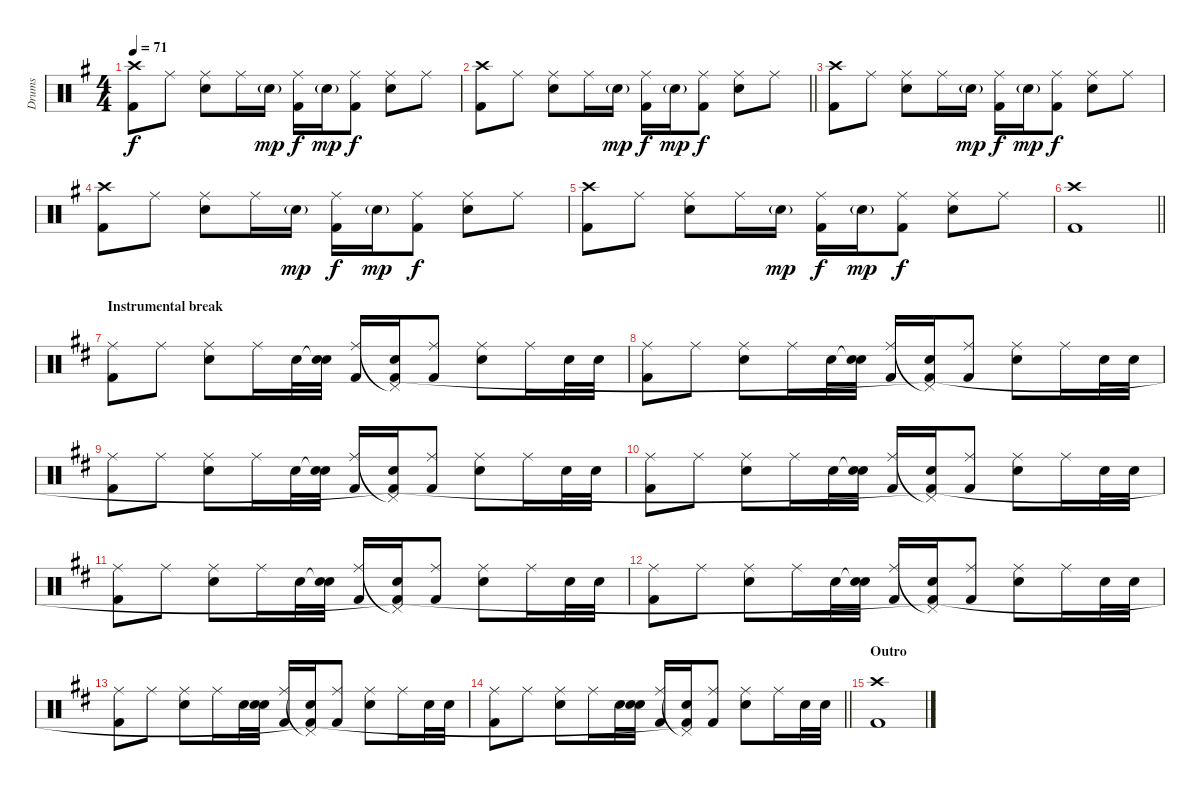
\track ("Drums" "Drums") {instrument percussion}
\staff {score}
\articulation defaults
\ts (4 4)
\tempo 71
\clef neutral
\ks eminor
("Crash high (hit)" "Kick (hit) 2").8{dy f} "Ride (middle)".8 ("Ride (middle)" "Electric Snare (hit)").8 "Ride (middle)".16 "Electric Snare (hit)"{g}.16{dy mp} ("Ride (middle)" "Kick (hit) 2").16{dy f} "Electric Snare (hit)"{g}.16{dy mp} ("Ride (middle)" "Kick (hit) 2").8{dy f} ("Ride (middle)" "Electric Snare (hit)").8 "Ride (middle)".8 |
\barLineRight lightlight
("Crash high (hit)" "Kick (hit) 2").8 "Ride (middle)".8 ("Ride (middle)" "Electric Snare (hit)").8 "Ride (middle)".16 "Electric Snare (hit)"{g}.16{dy mp} ("Ride (middle)" "Kick (hit) 2").16{dy f} "Electric Snare (hit)"{g}.16{dy mp} ("Ride (middle)" "Kick (hit) 2").8{dy f} ("Ride (middle)" "Electric Snare (hit)").8 "Ride (middle)".8 |
("Crash high (hit)" "Kick (hit) 2").8 "Ride (middle)".8 ("Ride (middle)" "Electric Snare (hit)").8 "Ride (middle)".16 "Electric Snare (hit)"{g}.16{dy mp} ("Ride (middle)" "Kick (hit) 2").16{dy f} "Electric Snare (hit)"{g}.16{dy mp} ("Ride (middle)" "Kick (hit) 2").8{dy f} ("Ride (middle)" "Electric Snare (hit)").8 "Ride (middle)".8 |
("Crash high (hit)" "Kick (hit) 2").8 "Ride (middle)".8 ("Ride (middle)" "Electric Snare (hit)").8 "Ride (middle)".16 "Electric Snare (hit)"{g}.16{dy mp} ("Ride (middle)" "Kick (hit) 2").16{dy f} "Electric Snare (hit)"{g}.16{dy mp} ("Ride (middle)" "Kick (hit) 2").8{dy f} ("Ride (middle)" "Electric Snare (hit)").8 "Ride (middle)".8 |
("Crash high (hit)" "Kick (hit) 2").8 "Ride (middle)".8 ("Ride (middle)" "Electric Snare (hit)").8 "Ride (middle)".16 "Electric Snare (hit)"{g}.16{dy mp} ("Ride (middle)" "Kick (hit) 2").16{dy f} "Electric Snare (hit)"{g}.16{dy mp} ("Ride (middle)" "Kick (hit) 2").8{dy f} ("Ride (middle)" "Electric Snare (hit)").8 "Ride (middle)".8 |
\barLineRight lightlight
("Crash high (hit)" "Kick (hit) 2").1 |
\section ("" "Instrumental break")
\ks bminor
("Ride (middle)" "Kick (hit) 2").8 "Ride (middle)".8 ("Ride (middle)" "Electric Snare (hit)").8 "Ride (middle)".16 "Electric Snare (hit)".32 ("Snare (hit)"{t} "Electric Snare (hit)").32 ("Ride (middle)" "Kick (hit) 2").16 ("Pedal Hi-Hat (hit)"{t} "Electric Snare (hit)" "Kick (hit) 2").16 ("Ride (middle)" "Kick (hit) 2").8 ("Ride (middle)" "Electric Snare (hit)").8 "Ride (middle)".16 "Electric Snare (hit)".32 "Electric Snare (hit)".32 |
("Ride (middle)" "Kick (hit) 2").8 "Ride (middle)".8 ("Ride (middle)" "Electric Snare (hit)").8 "Ride (middle)".16 "Electric Snare (hit)".32 ("Snare (hit)"{t} "Electric Snare (hit)").32 ("Ride (middle)" "Kick (hit) 2").16 ("Pedal Hi-Hat (hit)"{t} "Electric Snare (hit)" "Kick (hit) 2"{t}).16 ("Ride (middle)" "Kick (hit) 2").8 ("Ride (middle)" "Electric Snare (hit)").8 "Ride (middle)".16 "Electric Snare (hit)".32 "Electric Snare (hit)".32 |
("Ride (middle)" "Kick (hit) 2").8 "Ride (middle)".8 ("Ride (middle)" "Electric Snare (hit)").8 "Ride (middle)".16 "Electric Snare (hit)".32 ("Snare (hit)"{t} "Electric Snare (hit)").32 ("Ride (middle)" "Kick (hit) 2").16 ("Pedal Hi-Hat (hit)"{t} "Electric Snare (hit)" "Kick (hit) 2"{t}).16 ("Ride (middle)" "Kick (hit) 2").8 ("Ride (middle)" "Electric Snare (hit)").8 "Ride (middle)".16 "Electric Snare (hit)".32 "Electric Snare (hit)".32 |
("Ride (middle)" "Kick (hit) 2").8 "Ride (middle)".8 ("Ride (middle)" "Electric Snare (hit)").8 "Ride (middle)".16 "Electric Snare (hit)".32 ("Snare (hit)"{t} "Electric Snare (hit)").32 ("Ride (middle)" "Kick (hit) 2").16 ("Pedal Hi-Hat (hit)"{t} "Electric Snare (hit)" "Kick (hit) 2"{t}).16 ("Ride (middle)" "Kick (hit) 2").8 ("Ride (middle)" "Electric Snare (hit)").8 "Ride (middle)".16 "Electric Snare (hit)".32 "Electric Snare (hit)".32 |
("Ride (middle)" "Kick (hit) 2").8 "Ride (middle)".8 ("Ride (middle)" "Electric Snare (hit)").8 "Ride (middle)".16 "Electric Snare (hit)".32 ("Snare (hit)"{t} "Electric Snare (hit)").32 ("Ride (middle)" "Kick (hit) 2").16 ("Pedal Hi-Hat (hit)"{t} "Electric Snare (hit)" "Kick (hit) 2"{t}).16 ("Ride (middle)" "Kick (hit) 2").8 ("Ride (middle)" "Electric Snare (hit)").8 "Ride (middle)".16 "Electric Snare (hit)".32 "Electric Snare (hit)".32 |
("Ride (middle)" "Kick (hit) 2").8 "Ride (middle)".8 ("Ride (middle)" "Electric Snare (hit)").8 "Ride (middle)".16 "Electric Snare (hit)".32 ("Snare (hit)"{t} "Electric Snare (hit)").32 ("Ride (middle)" "Kick (hit) 2").16 ("Pedal Hi-Hat (hit)"{t} "Electric Snare (hit)" "Kick (hit) 2"{t}).16 ("Ride (middle)" "Kick (hit) 2").8 ("Ride (middle)" "Electric Snare (hit)").8 "Ride (middle)".16 "Electric Snare (hit)".32 "Electric Snare (hit)".32 |
("Ride (middle)" "Kick (hit) 2").8 "Ride (middle)".8 ("Ride (middle)" "Electric Snare (hit)").8 "Ride (middle)".16 "Electric Snare (hit)".32 ("Snare (hit)"{t} "Electric Snare (hit)").32 ("Ride (middle)" "Kick (hit) 2").16 ("Pedal Hi-Hat (hit)"{t} "Electric Snare (hit)" "Kick (hit) 2"{t}).16 ("Ride (middle)" "Kick (hit) 2").8 ("Ride (middle)" "Electric Snare (hit)").8 "Ride (middle)".16 "Electric Snare (hit)".32 "Electric Snare (hit)".32 |
\barLineRight lightlight
("Ride (middle)" "Kick (hit) 2").8 "Ride (middle)".8 ("Ride (middle)" "Electric Snare (hit)").8 "Ride (middle)".16 "Electric Snare (hit)".32 ("Snare (hit)"{t} "Electric Snare (hit)").32 ("Ride (middle)" "Kick (hit) 2").16 ("Pedal Hi-Hat (hit)"{t} "Electric Snare (hit)" "Kick (hit) 2"{t}).16 ("Ride (middle)" "Kick (hit) 2").8 ("Ride (middle)" "Electric Snare (hit)").8 "Ride (middle)".16 "Electric Snare (hit)".32 "Electric Snare (hit)".32 |
\section ("" "Outro")
("Crash high (hit)" "Kick (hit) 2").1
